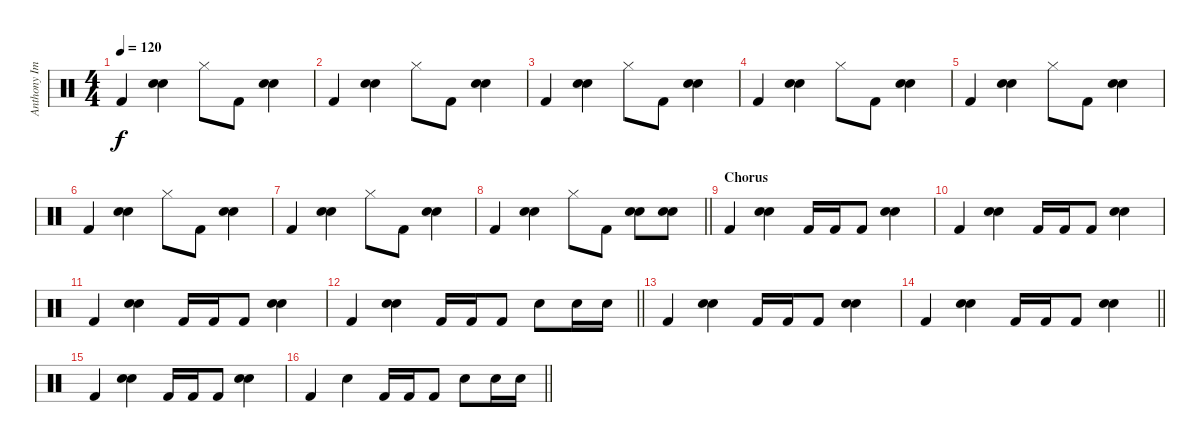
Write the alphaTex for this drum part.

\track ("Anthony Improgo (Percussion)" "Anthony Im") {instrument percussion}
\staff {score}
\articulation defaults
\ts (4 4)
\tempo 120
\clef neutral
\ks c "Kick (hit) 2".4{dy f}
("Snare (hit) 2" "Snare (hit) 2").4 "Hi-Hat (closed)".8 "Kick (hit) 2".8 ("Snare (hit) 2" "Snare (hit) 2").4 |
"Kick (hit) 2".4 ("Snare (hit) 2" "Snare (hit) 2").4 "Hi-Hat (closed)".8 "Kick (hit) 2".8 ("Snare (hit) 2" "Snare (hit) 2").4 |
"Kick (hit) 2".4 ("Snare (hit) 2" "Snare (hit) 2").4 "Hi-Hat (closed)".8 "Kick (hit) 2".8 ("Snare (hit) 2" "Snare (hit) 2").4 |
"Kick (hit) 2".4 ("Snare (hit) 2" "Snare (hit) 2").4 "Hi-Hat (closed)".8 "Kick (hit) 2".8 ("Snare (hit) 2" "Snare (hit) 2").4 |
"Kick (hit) 2".4 ("Snare (hit) 2" "Snare (hit) 2").4 "Hi-Hat (closed)".8 "Kick (hit) 2".8 ("Snare (hit) 2" "Snare (hit) 2").4 |
"Kick (hit) 2".4 ("Snare (hit) 2" "Snare (hit) 2").4 "Hi-Hat (closed)".8 "Kick (hit) 2".8 ("Snare (hit) 2" "Snare (hit) 2").4 |
"Kick (hit) 2".4 ("Snare (hit) 2" "Snare (hit) 2").4 "Hi-Hat (closed)".8 "Kick (hit) 2".8 ("Snare (hit) 2" "Snare (hit) 2").4 |
\barLineRight lightlight "Kick (hit) 2".4
("Snare (hit) 2" "Snare (hit) 2").4 "Hi-Hat (closed)".8 "Kick (hit) 2".8 ("Snare (hit) 2" "Snare (hit) 2").8 ("Snare (hit) 2" "Snare (hit) 2").8 |
\section ("" "Chorus")
"Kick (hit) 2".4 ("Snare (hit) 2" "Snare (hit) 2").4 "Kick (hit) 2".16 "Kick (hit) 2".16 "Kick (hit) 2".8 ("Snare (hit) 2" "Snare (hit) 2").4 |
"Kick (hit) 2".4 ("Snare (hit) 2" "Snare (hit) 2").4 "Kick (hit) 2".16 "Kick (hit) 2".16 "Kick (hit) 2".8 ("Snare (hit) 2" "Snare (hit) 2").4 |
"Kick (hit) 2".4 ("Snare (hit) 2" "Snare (hit) 2").4 "Kick (hit) 2".16 "Kick (hit) 2".16 "Kick (hit) 2".8 ("Snare (hit) 2" "Snare (hit) 2").4 |
\barLineRight lightlight "Kick (hit) 2".4
("Snare (hit) 2" "Snare (hit) 2").4 "Kick (hit) 2".16 "Kick (hit) 2".16 "Kick (hit) 2".8 "Snare (hit) 2".8 "Snare (hit) 2".16 "Snare (hit) 2".16 |
"Kick (hit) 2".4 ("Snare (hit) 2" "Snare (hit) 2").4 "Kick (hit) 2".16 "Kick (hit) 2".16 "Kick (hit) 2".8 ("Snare (hit) 2" "Snare (hit) 2").4 |
\barLineRight lightlight "Kick (hit) 2".4
("Snare (hit) 2" "Snare (hit) 2").4 "Kick (hit) 2".16 "Kick (hit) 2".16 "Kick (hit) 2".8 ("Snare (hit) 2" "Snare (hit) 2").4 |
"Kick (hit) 2".4 ("Snare (hit) 2" "Snare (hit) 2").4 "Kick (hit) 2".16 "Kick (hit) 2".16 "Kick (hit) 2".8 ("Snare (hit) 2" "Snare (hit) 2").4 |
\barLineRight lightlight "Kick (hit) 2".4 "Snare (hit) 2".4 "Kick (hit) 2".16 "Kick (hit) 2".16 "Kick (hit) 2".8 "Snare (hit) 2".8 "Snare (hit) 2".16 "Snare (hit) 2".16
